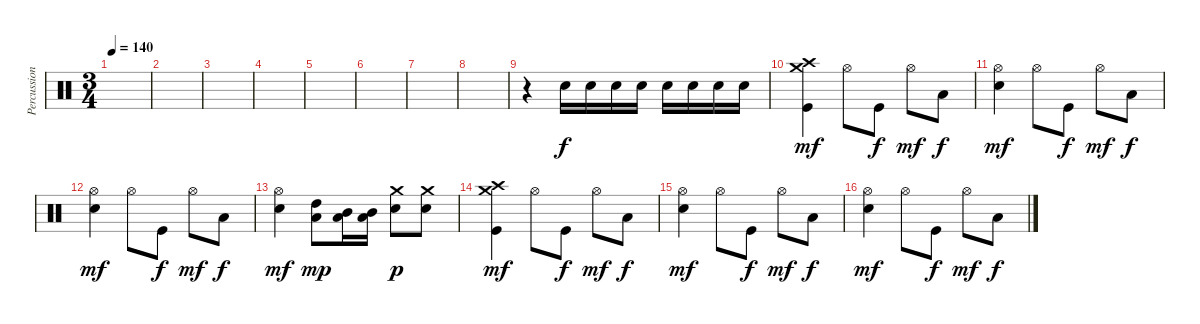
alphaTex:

\track ("Percussion" "Percussion") {instrument percussion}
\staff {score}
\articulation defaults
\ts (3 4)
\tempo 140
\clef neutral
\ks c
|
|
|
|
|
|
|
|
r.4 "Electric Snare (hit)".16 "Electric Snare (hit)".16 "Electric Snare (hit)".16 "Electric Snare (hit)".16 "Electric Snare (hit)".16 "Electric Snare (hit)".16 "Electric Snare (hit)".16 "Electric Snare (hit)".16 |
("Kick (hit)" "Crash high (hit)" "Crash medium (hit)").4{dy mf} "Hi-Hat (open)".8 "Kick (hit)".8{dy f} "Hi-Hat (open)".8{dy mf} "Low Floor Tom (hit)".8{dy f} |
("Electric Snare (hit)" "Hi-Hat (open)").4{dy mf} "Hi-Hat (open)".8 "Kick (hit)".8{dy f} "Hi-Hat (open)".8{dy mf} "Low Floor Tom (hit)".8{dy f} |
("Electric Snare (hit)" "Hi-Hat (open)").4{dy mf} "Hi-Hat (open)".8 "Kick (hit)".8{dy f} "Hi-Hat (open)".8{dy mf} "Low Floor Tom (hit)".8{dy f} |
("Electric Snare (hit)" "Hi-Hat (open)").4{dy mf} ("Low Tom (hit)" "High Tom (hit)").8{dy mp} ("Low Tom (hit)" "Mid Tom (hit)").16 ("Low Tom (hit)" "Mid Tom (hit)").16 ("Electric Snare (hit)" "Crash medium (hit)").8{dy p} ("Electric Snare (hit)" "Crash medium (hit)").8 |
("Kick (hit)" "Crash high (hit)" "Crash medium (hit)").4{dy mf} "Hi-Hat (open)".8 "Kick (hit)".8{dy f} "Hi-Hat (open)".8{dy mf} "Low Floor Tom (hit)".8{dy f} |
("Electric Snare (hit)" "Hi-Hat (open)").4{dy mf} "Hi-Hat (open)".8 "Kick (hit)".8{dy f} "Hi-Hat (open)".8{dy mf} "Low Floor Tom (hit)".8{dy f} |
("Electric Snare (hit)" "Hi-Hat (open)").4{dy mf} "Hi-Hat (open)".8 "Kick (hit)".8{dy f} "Hi-Hat (open)".8{dy mf} "Low Floor Tom (hit)".8{dy f}
